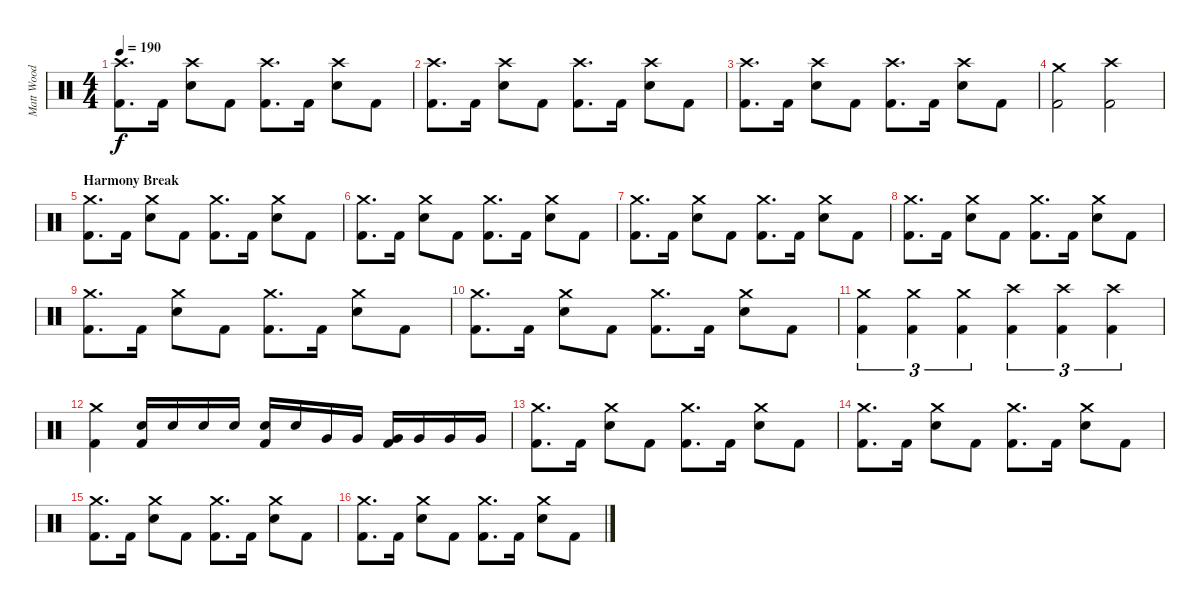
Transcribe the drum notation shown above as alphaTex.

\track ("Matt Wood" "Matt Wood") {instrument percussion}
\staff {score}
\articulation defaults
\ts (4 4)
\tempo 190
\clef neutral
\ks c
("Crash high (hit)" "Kick (hit) 2").8{d dy f} "Kick (hit) 2".16 ("Crash high (hit)" "Snare (hit) 2").8 "Kick (hit) 2".8 ("Crash high (hit)" "Kick (hit) 2").8{d} "Kick (hit) 2".16 ("Crash high (hit)" "Snare (hit) 2").8 "Kick (hit) 2".8 |
("Crash high (hit)" "Kick (hit) 2").8{d} "Kick (hit) 2".16 ("Crash high (hit)" "Snare (hit) 2").8 "Kick (hit) 2".8 ("Crash high (hit)" "Kick (hit) 2").8{d} "Kick (hit) 2".16 ("Crash high (hit)" "Snare (hit) 2").8 "Kick (hit) 2".8 |
("Crash high (hit)" "Kick (hit) 2").8{d} "Kick (hit) 2".16 ("Crash high (hit)" "Snare (hit) 2").8 "Kick (hit) 2".8 ("Crash high (hit)" "Kick (hit) 2").8{d} "Kick (hit) 2".16 ("Crash high (hit)" "Snare (hit) 2").8 "Kick (hit) 2".8 |
("Crash medium (hit)" "Kick (hit) 2").2 ("Crash high (hit)" "Kick (hit) 2").2 |
\section ("" "Harmony Break")
("Crash medium (hit)" "Kick (hit) 2").8{d} "Kick (hit) 2".16 ("Crash medium (hit)" "Snare (hit) 2").8 "Kick (hit) 2".8 ("Crash medium (hit)" "Kick (hit) 2").8{d} "Kick (hit) 2".16 ("Crash medium (hit)" "Snare (hit) 2").8 "Kick (hit) 2".8 |
("Crash medium (hit)" "Kick (hit) 2").8{d} "Kick (hit) 2".16 ("Crash medium (hit)" "Snare (hit) 2").8 "Kick (hit) 2".8 ("Crash medium (hit)" "Kick (hit) 2").8{d} "Kick (hit) 2".16 ("Crash medium (hit)" "Snare (hit) 2").8 "Kick (hit) 2".8 |
("Crash medium (hit)" "Kick (hit) 2").8{d} "Kick (hit) 2".16 ("Crash medium (hit)" "Snare (hit) 2").8 "Kick (hit) 2".8 ("Crash medium (hit)" "Kick (hit) 2").8{d} "Kick (hit) 2".16 ("Crash medium (hit)" "Snare (hit) 2").8 "Kick (hit) 2".8 |
("Crash medium (hit)" "Kick (hit) 2").8{d} "Kick (hit) 2".16 ("Crash medium (hit)" "Snare (hit) 2").8 "Kick (hit) 2".8 ("Crash medium (hit)" "Kick (hit) 2").8{d} "Kick (hit) 2".16 ("Crash medium (hit)" "Snare (hit) 2").8 "Kick (hit) 2".8 |
("Crash medium (hit)" "Kick (hit) 2").8{d} "Kick (hit) 2".16 ("Crash medium (hit)" "Snare (hit) 2").8 "Kick (hit) 2".8 ("Crash medium (hit)" "Kick (hit) 2").8{d} "Kick (hit) 2".16 ("Crash medium (hit)" "Snare (hit) 2").8 "Kick (hit) 2".8 |
("Crash medium (hit)" "Kick (hit) 2").8{d} "Kick (hit) 2".16 ("Crash medium (hit)" "Snare (hit) 2").8 "Kick (hit) 2".8 ("Crash medium (hit)" "Kick (hit) 2").8{d} "Kick (hit) 2".16 ("Crash medium (hit)" "Snare (hit) 2").8 "Kick (hit) 2".8 |
("Crash medium (hit)" "Kick (hit) 2").4{tu (3 2)} ("Crash medium (hit)" "Kick (hit) 2").4{tu (3 2)} ("Crash medium (hit)" "Kick (hit) 2").4{tu (3 2)} ("Crash high (hit)" "Kick (hit) 2").4{tu (3 2)} ("Crash high (hit)" "Kick (hit) 2").4{tu (3 2)} ("Crash high (hit)" "Kick (hit) 2").4{tu (3 2)} |
("Crash medium (hit)" "Kick (hit) 2").4 ("Snare (hit) 2" "Kick (hit) 2").16 "Snare (hit) 2".16 "Snare (hit) 2".16 "Snare (hit) 2".16 ("Snare (hit) 2" "Kick (hit) 2").16 "Snare (hit) 2".16 "Very Low Tom (hit)".16 "Very Low Tom (hit)".16 ("Very Low Tom (hit)" "Kick (hit) 2").16 "Very Low Tom (hit)".16 "Very Low Tom (hit)".16 "Very Low Tom (hit)".16 |
("Crash medium (hit)" "Kick (hit) 2").8{d} "Kick (hit) 2".16 ("Crash medium (hit)" "Snare (hit) 2").8 "Kick (hit) 2".8 ("Crash medium (hit)" "Kick (hit) 2").8{d} "Kick (hit) 2".16 ("Crash medium (hit)" "Snare (hit) 2").8 "Kick (hit) 2".8 |
("Crash medium (hit)" "Kick (hit) 2").8{d} "Kick (hit) 2".16 ("Crash medium (hit)" "Snare (hit) 2").8 "Kick (hit) 2".8 ("Crash medium (hit)" "Kick (hit) 2").8{d} "Kick (hit) 2".16 ("Crash medium (hit)" "Snare (hit) 2").8 "Kick (hit) 2".8 |
("Crash medium (hit)" "Kick (hit) 2").8{d} "Kick (hit) 2".16 ("Crash medium (hit)" "Snare (hit) 2").8 "Kick (hit) 2".8 ("Crash medium (hit)" "Kick (hit) 2").8{d} "Kick (hit) 2".16 ("Crash medium (hit)" "Snare (hit) 2").8 "Kick (hit) 2".8 |
("Crash medium (hit)" "Kick (hit) 2").8{d} "Kick (hit) 2".16 ("Crash medium (hit)" "Snare (hit) 2").8 "Kick (hit) 2".8 ("Crash medium (hit)" "Kick (hit) 2").8{d} "Kick (hit) 2".16 ("Crash medium (hit)" "Snare (hit) 2").8 "Kick (hit) 2".8
